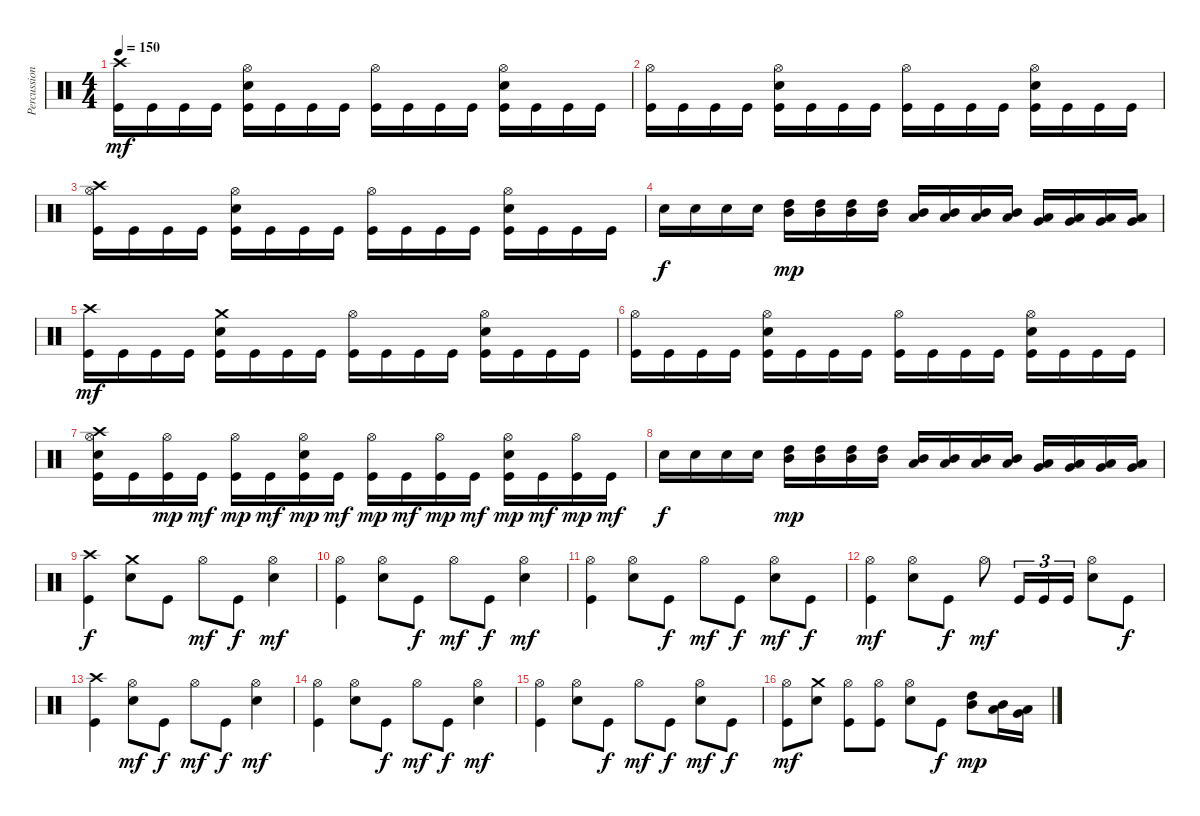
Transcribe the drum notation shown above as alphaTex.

\track ("Percussions" "Percussion") {instrument percussion}
\staff {score}
\articulation defaults
\ts (4 4)
\tempo 150
\clef neutral
\ks c
("Kick (hit)" "Crash high (hit)").16{dy mf} "Kick (hit)".16 "Kick (hit)".16 "Kick (hit)".16 ("Kick (hit)" "Electric Snare (hit)" "Hi-Hat (open)").16 "Kick (hit)".16 "Kick (hit)".16 "Kick (hit)".16 ("Kick (hit)" "Hi-Hat (open)").16 "Kick (hit)".16 "Kick (hit)".16 "Kick (hit)".16 ("Kick (hit)" "Electric Snare (hit)" "Hi-Hat (open)").16 "Kick (hit)".16 "Kick (hit)".16 "Kick (hit)".16 |
("Kick (hit)" "Hi-Hat (open)").16 "Kick (hit)".16 "Kick (hit)".16 "Kick (hit)".16 ("Kick (hit)" "Electric Snare (hit)" "Hi-Hat (open)").16 "Kick (hit)".16 "Kick (hit)".16 "Kick (hit)".16 ("Kick (hit)" "Hi-Hat (open)").16 "Kick (hit)".16 "Kick (hit)".16 "Kick (hit)".16 ("Kick (hit)" "Electric Snare (hit)" "Hi-Hat (open)").16 "Kick (hit)".16 "Kick (hit)".16 "Kick (hit)".16 |
("Kick (hit)" "Hi-Hat (open)" "Crash high (hit)").16 "Kick (hit)".16 "Kick (hit)".16 "Kick (hit)".16 ("Kick (hit)" "Electric Snare (hit)" "Hi-Hat (open)").16 "Kick (hit)".16 "Kick (hit)".16 "Kick (hit)".16 ("Kick (hit)" "Hi-Hat (open)").16 "Kick (hit)".16 "Kick (hit)".16 "Kick (hit)".16 ("Kick (hit)" "Electric Snare (hit)" "Hi-Hat (open)").16 "Kick (hit)".16 "Kick (hit)".16 "Kick (hit)".16 |
"Electric Snare (hit)".16{dy f} "Electric Snare (hit)".16 "Electric Snare (hit)".16 "Electric Snare (hit)".16 ("High Tom (hit)" "Mid Tom (hit)").16{dy mp} ("High Tom (hit)" "Mid Tom (hit)").16 ("High Tom (hit)" "Mid Tom (hit)").16 ("High Tom (hit)" "Mid Tom (hit)").16 ("Mid Tom (hit)" "Low Tom (hit)").16 ("Mid Tom (hit)" "Low Tom (hit)").16 ("Mid Tom (hit)" "Low Tom (hit)").16 ("Mid Tom (hit)" "Low Tom (hit)").16 ("Low Tom (hit)" "Very Low Tom (hit)").16 ("Low Tom (hit)" "Very Low Tom (hit)").16 ("Low Tom (hit)" "Very Low Tom (hit)").16 ("Low Tom (hit)" "Very Low Tom (hit)").16 |
("Kick (hit)" "Crash high (hit)").16{dy mf} "Kick (hit)".16 "Kick (hit)".16 "Kick (hit)".16 ("Kick (hit)" "Electric Snare (hit)" "Crash medium (hit)").16 "Kick (hit)".16 "Kick (hit)".16 "Kick (hit)".16 ("Kick (hit)" "Hi-Hat (open)").16 "Kick (hit)".16 "Kick (hit)".16 "Kick (hit)".16 ("Kick (hit)" "Electric Snare (hit)" "Hi-Hat (open)").16 "Kick (hit)".16 "Kick (hit)".16 "Kick (hit)".16 |
("Kick (hit)" "Hi-Hat (open)").16 "Kick (hit)".16 "Kick (hit)".16 "Kick (hit)".16 ("Kick (hit)" "Electric Snare (hit)" "Hi-Hat (open)").16 "Kick (hit)".16 "Kick (hit)".16 "Kick (hit)".16 ("Kick (hit)" "Hi-Hat (open)").16 "Kick (hit)".16 "Kick (hit)".16 "Kick (hit)".16 ("Kick (hit)" "Electric Snare (hit)" "Hi-Hat (open)").16 "Kick (hit)".16 "Kick (hit)".16 "Kick (hit)".16 |
("Kick (hit)" "Electric Snare (hit)" "Hi-Hat (open)" "Crash high (hit)").16 "Kick (hit)".16 ("Kick (hit)" "Hi-Hat (open)").16{dy mp} "Kick (hit)".16{dy mf} ("Kick (hit)" "Hi-Hat (open)").16{dy mp} "Kick (hit)".16{dy mf} ("Kick (hit)" "Electric Snare (hit)" "Hi-Hat (open)").16{dy mp} "Kick (hit)".16{dy mf} ("Kick (hit)" "Hi-Hat (open)").16{dy mp} "Kick (hit)".16{dy mf} ("Kick (hit)" "Hi-Hat (open)").16{dy mp} "Kick (hit)".16{dy mf} ("Kick (hit)" "Electric Snare (hit)" "Hi-Hat (open)").16{dy mp} "Kick (hit)".16{dy mf} ("Kick (hit)" "Hi-Hat (open)").16{dy mp} "Kick (hit)".16{dy mf} |
"Electric Snare (hit)".16{dy f} "Electric Snare (hit)".16 "Electric Snare (hit)".16 "Electric Snare (hit)".16 ("High Tom (hit)" "Mid Tom (hit)").16{dy mp} ("High Tom (hit)" "Mid Tom (hit)").16 ("High Tom (hit)" "Mid Tom (hit)").16 ("High Tom (hit)" "Mid Tom (hit)").16 ("Mid Tom (hit)" "Low Tom (hit)").16 ("Mid Tom (hit)" "Low Tom (hit)").16 ("Mid Tom (hit)" "Low Tom (hit)").16 ("Mid Tom (hit)" "Low Tom (hit)").16 ("Low Tom (hit)" "Very Low Tom (hit)").16 ("Low Tom (hit)" "Very Low Tom (hit)").16 ("Low Tom (hit)" "Very Low Tom (hit)").16 ("Low Tom (hit)" "Very Low Tom (hit)").16 |
("Kick (hit)" "Crash high (hit)").4{dy f} ("Electric Snare (hit)" "Crash medium (hit)").8 "Kick (hit)".8 "Hi-Hat (open)".8{dy mf} "Kick (hit)".8{dy f} ("Electric Snare (hit)" "Hi-Hat (open)").4{dy mf} |
("Kick (hit)" "Hi-Hat (open)").4 ("Electric Snare (hit)" "Hi-Hat (open)").8 "Kick (hit)".8{dy f} "Hi-Hat (open)".8{dy mf} "Kick (hit)".8{dy f} ("Electric Snare (hit)" "Hi-Hat (open)").4{dy mf} |
("Kick (hit)" "Hi-Hat (open)").4 ("Electric Snare (hit)" "Hi-Hat (open)").8 "Kick (hit)".8{dy f} "Hi-Hat (open)".8{dy mf} "Kick (hit)".8{dy f} ("Electric Snare (hit)" "Hi-Hat (open)").8{dy mf} "Kick (hit)".8{dy f} |
("Kick (hit)" "Hi-Hat (open)").4{dy mf} ("Electric Snare (hit)" "Hi-Hat (open)").8 "Kick (hit)".8{dy f} "Hi-Hat (open)".8{dy mf} "Kick (hit)".16{tu (3 2)} "Kick (hit)".16{tu (3 2)} "Kick (hit)".16{tu (3 2)} ("Electric Snare (hit)" "Hi-Hat (open)").8 "Kick (hit)".8{dy f} |
("Kick (hit)" "Crash high (hit)").4 ("Electric Snare (hit)" "Hi-Hat (open)").8{dy mf} "Kick (hit)".8{dy f} "Hi-Hat (open)".8{dy mf} "Kick (hit)".8{dy f} ("Electric Snare (hit)" "Hi-Hat (open)").4{dy mf} |
("Kick (hit)" "Hi-Hat (open)").4 ("Electric Snare (hit)" "Hi-Hat (open)").8 "Kick (hit)".8{dy f} "Hi-Hat (open)".8{dy mf} "Kick (hit)".8{dy f} ("Electric Snare (hit)" "Hi-Hat (open)").4{dy mf} |
("Kick (hit)" "Hi-Hat (open)").4 ("Electric Snare (hit)" "Hi-Hat (open)").8 "Kick (hit)".8{dy f} "Hi-Hat (open)".8{dy mf} "Kick (hit)".8{dy f} ("Electric Snare (hit)" "Hi-Hat (open)").8{dy mf} "Kick (hit)".8{dy f} |
("Kick (hit)" "Hi-Hat (open)").8{dy mf} ("Electric Snare (hit)" "Crash medium (hit)").8 ("Kick (hit)" "Hi-Hat (open)").8 ("Kick (hit)" "Hi-Hat (open)").8 ("Electric Snare (hit)" "Hi-Hat (open)").8 "Kick (hit)".8{dy f} ("Mid Tom (hit)" "High Tom (hit)").8{dy mp} ("Low Tom (hit)" "Mid Tom (hit)").16 ("Very Low Tom (hit)" "Low Tom (hit)").16
